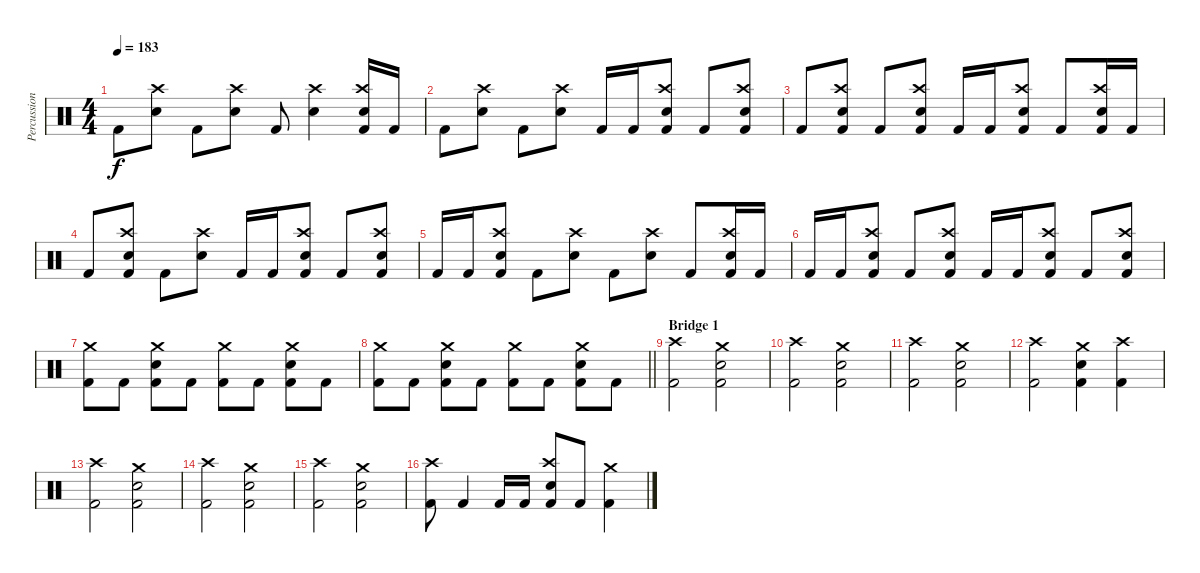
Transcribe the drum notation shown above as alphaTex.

\track ("Percussion" "Percussion") {instrument percussion}
\staff {score}
\articulation defaults
\ts (4 4)
\tempo 183
\clef neutral
\ks aminor "Kick (hit) 2".8{dy f}
("Crash high (hit)" "Electric Snare (hit)").8 "Kick (hit) 2".8 ("Crash high (hit)" "Electric Snare (hit)").8 "Kick (hit) 2".8 ("Crash high (hit)" "Electric Snare (hit)").4 ("Crash high (hit)" "Electric Snare (hit)" "Kick (hit) 2").16 "Kick (hit) 2".16 |
"Kick (hit) 2".8 ("Crash high (hit)" "Electric Snare (hit)").8 "Kick (hit) 2".8 ("Crash high (hit)" "Electric Snare (hit)").8 "Kick (hit) 2".16 "Kick (hit) 2".16 ("Crash high (hit)" "Electric Snare (hit)" "Kick (hit) 2").8 "Kick (hit) 2".8 ("Crash high (hit)" "Electric Snare (hit)" "Kick (hit) 2").8 |
"Kick (hit) 2".8 ("Crash high (hit)" "Electric Snare (hit)" "Kick (hit) 2").8 "Kick (hit) 2".8 ("Crash high (hit)" "Electric Snare (hit)" "Kick (hit) 2").8 "Kick (hit) 2".16 "Kick (hit) 2".16 ("Crash high (hit)" "Electric Snare (hit)" "Kick (hit) 2").8 "Kick (hit) 2".8 ("Crash high (hit)" "Electric Snare (hit)" "Kick (hit) 2").16 "Kick (hit) 2".16 |
"Kick (hit) 2".8 ("Crash high (hit)" "Electric Snare (hit)" "Kick (hit) 2").8 "Kick (hit) 2".8 ("Crash high (hit)" "Electric Snare (hit)").8 "Kick (hit) 2".16 "Kick (hit) 2".16 ("Crash high (hit)" "Electric Snare (hit)" "Kick (hit) 2").8 "Kick (hit) 2".8 ("Crash high (hit)" "Electric Snare (hit)" "Kick (hit) 2").8 |
"Kick (hit) 2".16 "Kick (hit) 2".16 ("Crash high (hit)" "Electric Snare (hit)" "Kick (hit) 2").8 "Kick (hit) 2".8 ("Crash high (hit)" "Electric Snare (hit)").8 "Kick (hit) 2".8 ("Crash high (hit)" "Electric Snare (hit)").8 "Kick (hit) 2".8 ("Crash high (hit)" "Electric Snare (hit)" "Kick (hit) 2").16 "Kick (hit) 2".16 |
"Kick (hit) 2".16 "Kick (hit) 2".16 ("Crash high (hit)" "Electric Snare (hit)" "Kick (hit) 2").8 "Kick (hit) 2".8 ("Crash high (hit)" "Electric Snare (hit)" "Kick (hit) 2").8 "Kick (hit) 2".16 "Kick (hit) 2".16 ("Crash high (hit)" "Electric Snare (hit)" "Kick (hit) 2").8 "Kick (hit) 2".8 ("Crash high (hit)" "Electric Snare (hit)" "Kick (hit) 2").8 |
("Crash medium (hit)" "Kick (hit) 2").8 "Kick (hit) 2".8 ("Crash medium (hit)" "Electric Snare (hit)" "Kick (hit) 2").8 "Kick (hit) 2".8 ("Crash medium (hit)" "Kick (hit) 2").8 "Kick (hit) 2".8 ("Crash medium (hit)" "Electric Snare (hit)" "Kick (hit) 2").8 "Kick (hit) 2".8 |
\barLineRight lightlight
("Crash medium (hit)" "Kick (hit) 2").8 "Kick (hit) 2".8 ("Crash medium (hit)" "Electric Snare (hit)" "Kick (hit) 2").8 "Kick (hit) 2".8 ("Crash medium (hit)" "Kick (hit) 2").8 "Kick (hit) 2".8 ("Crash medium (hit)" "Electric Snare (hit)" "Kick (hit) 2").8 "Kick (hit) 2".8 |
\section ("" "Bridge 1")
("Crash high (hit)" "Kick (hit) 2").2 ("Crash medium (hit)" "Electric Snare (hit)" "Kick (hit) 2").2 |
("Crash high (hit)" "Kick (hit) 2").2 ("Crash medium (hit)" "Electric Snare (hit)" "Kick (hit) 2").2 |
("Crash high (hit)" "Kick (hit) 2").2 ("Crash medium (hit)" "Electric Snare (hit)" "Kick (hit) 2").2 |
("Crash high (hit)" "Kick (hit) 2").2 ("Crash medium (hit)" "Electric Snare (hit)" "Kick (hit) 2").4 ("Crash high (hit)" "Kick (hit) 2").4 |
("Crash high (hit)" "Kick (hit) 2").2 ("Crash medium (hit)" "Electric Snare (hit)" "Kick (hit) 2").2 |
("Crash high (hit)" "Kick (hit) 2").2 ("Crash medium (hit)" "Electric Snare (hit)" "Kick (hit) 2").2 |
("Crash high (hit)" "Kick (hit) 2").2 ("Crash medium (hit)" "Electric Snare (hit)" "Kick (hit) 2").2 |
("Crash high (hit)" "Kick (hit) 2").8 "Kick (hit) 2".4 "Kick (hit) 2".16 "Kick (hit) 2".16 ("Crash high (hit)" "Electric Snare (hit)" "Kick (hit) 2").8 "Kick (hit) 2".8 ("Crash medium (hit)" "Kick (hit) 2").4
